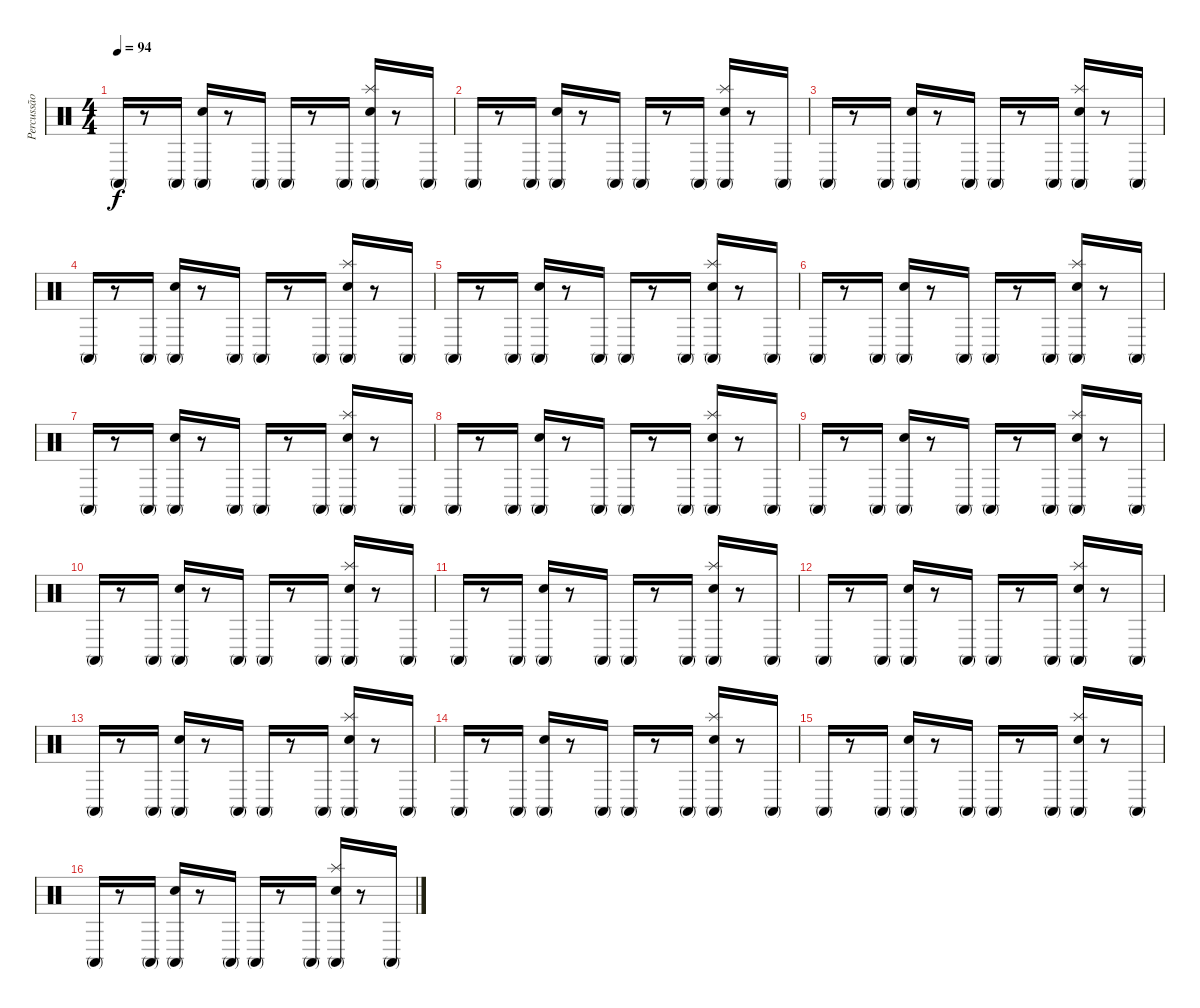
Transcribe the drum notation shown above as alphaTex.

\track ("Percussão" "Percussão") {instrument percussion}
\staff {score}
\articulation defaults
\ts (4 4)
\tempo 94
\clef neutral
\ks c "Conga high (mute)".16{dy f}
r.8 "Conga high (mute)".16 ("Conga high (mute)" "Hand Clap (hit)").16 r.8 "Conga high (mute)".16 "Conga high (mute)".16 r.8 "Conga high (mute)".16 ("Conga high (mute)" "Splash (hit)" "Hand Clap (hit)").16 r.8 "Conga high (mute)".16 |
"Conga high (mute)".16 r.8 "Conga high (mute)".16 ("Conga high (mute)" "Hand Clap (hit)").16 r.8 "Conga high (mute)".16 "Conga high (mute)".16 r.8 "Conga high (mute)".16 ("Conga high (mute)" "Splash (hit)" "Hand Clap (hit)").16 r.8 "Conga high (mute)".16 |
"Conga high (mute)".16 r.8 "Conga high (mute)".16 ("Conga high (mute)" "Hand Clap (hit)").16 r.8 "Conga high (mute)".16 "Conga high (mute)".16 r.8 "Conga high (mute)".16 ("Conga high (mute)" "Splash (hit)" "Hand Clap (hit)").16 r.8 "Conga high (mute)".16 |
"Conga high (mute)".16 r.8 "Conga high (mute)".16 ("Conga high (mute)" "Hand Clap (hit)").16 r.8 "Conga high (mute)".16 "Conga high (mute)".16 r.8 "Conga high (mute)".16 ("Conga high (mute)" "Splash (hit)" "Hand Clap (hit)").16 r.8 "Conga high (mute)".16 |
"Conga high (mute)".16 r.8 "Conga high (mute)".16 ("Conga high (mute)" "Hand Clap (hit)").16 r.8 "Conga high (mute)".16 "Conga high (mute)".16 r.8 "Conga high (mute)".16 ("Conga high (mute)" "Splash (hit)" "Hand Clap (hit)").16 r.8 "Conga high (mute)".16 |
"Conga high (mute)".16 r.8 "Conga high (mute)".16 ("Conga high (mute)" "Hand Clap (hit)").16 r.8 "Conga high (mute)".16 "Conga high (mute)".16 r.8 "Conga high (mute)".16 ("Conga high (mute)" "Splash (hit)" "Hand Clap (hit)").16 r.8 "Conga high (mute)".16 |
"Conga high (mute)".16 r.8 "Conga high (mute)".16 ("Conga high (mute)" "Hand Clap (hit)").16 r.8 "Conga high (mute)".16 "Conga high (mute)".16 r.8 "Conga high (mute)".16 ("Conga high (mute)" "Splash (hit)" "Hand Clap (hit)").16 r.8 "Conga high (mute)".16 |
"Conga high (mute)".16 r.8 "Conga high (mute)".16 ("Conga high (mute)" "Hand Clap (hit)").16 r.8 "Conga high (mute)".16 "Conga high (mute)".16 r.8 "Conga high (mute)".16 ("Conga high (mute)" "Splash (hit)" "Hand Clap (hit)").16 r.8 "Conga high (mute)".16 |
"Conga high (mute)".16 r.8 "Conga high (mute)".16 ("Conga high (mute)" "Hand Clap (hit)").16 r.8 "Conga high (mute)".16 "Conga high (mute)".16 r.8 "Conga high (mute)".16 ("Conga high (mute)" "Splash (hit)" "Hand Clap (hit)").16 r.8 "Conga high (mute)".16 |
"Conga high (mute)".16 r.8 "Conga high (mute)".16 ("Conga high (mute)" "Hand Clap (hit)").16 r.8 "Conga high (mute)".16 "Conga high (mute)".16 r.8 "Conga high (mute)".16 ("Conga high (mute)" "Splash (hit)" "Hand Clap (hit)").16 r.8 "Conga high (mute)".16 |
"Conga high (mute)".16 r.8 "Conga high (mute)".16 ("Conga high (mute)" "Hand Clap (hit)").16 r.8 "Conga high (mute)".16 "Conga high (mute)".16 r.8 "Conga high (mute)".16 ("Conga high (mute)" "Splash (hit)" "Hand Clap (hit)").16 r.8 "Conga high (mute)".16 |
"Conga high (mute)".16 r.8 "Conga high (mute)".16 ("Conga high (mute)" "Hand Clap (hit)").16 r.8 "Conga high (mute)".16 "Conga high (mute)".16 r.8 "Conga high (mute)".16 ("Conga high (mute)" "Splash (hit)" "Hand Clap (hit)").16 r.8 "Conga high (mute)".16 |
"Conga high (mute)".16 r.8 "Conga high (mute)".16 ("Conga high (mute)" "Hand Clap (hit)").16 r.8 "Conga high (mute)".16 "Conga high (mute)".16 r.8 "Conga high (mute)".16 ("Conga high (mute)" "Splash (hit)" "Hand Clap (hit)").16 r.8 "Conga high (mute)".16 |
"Conga high (mute)".16 r.8 "Conga high (mute)".16 ("Conga high (mute)" "Hand Clap (hit)").16 r.8 "Conga high (mute)".16 "Conga high (mute)".16 r.8 "Conga high (mute)".16 ("Conga high (mute)" "Splash (hit)" "Hand Clap (hit)").16 r.8 "Conga high (mute)".16 |
"Conga high (mute)".16 r.8 "Conga high (mute)".16 ("Conga high (mute)" "Hand Clap (hit)").16 r.8 "Conga high (mute)".16 "Conga high (mute)".16 r.8 "Conga high (mute)".16 ("Conga high (mute)" "Splash (hit)" "Hand Clap (hit)").16 r.8 "Conga high (mute)".16 |
"Conga high (mute)".16 r.8 "Conga high (mute)".16 ("Conga high (mute)" "Hand Clap (hit)").16 r.8 "Conga high (mute)".16 "Conga high (mute)".16 r.8 "Conga high (mute)".16 ("Conga high (mute)" "Splash (hit)" "Hand Clap (hit)").16 r.8 "Conga high (mute)".16
